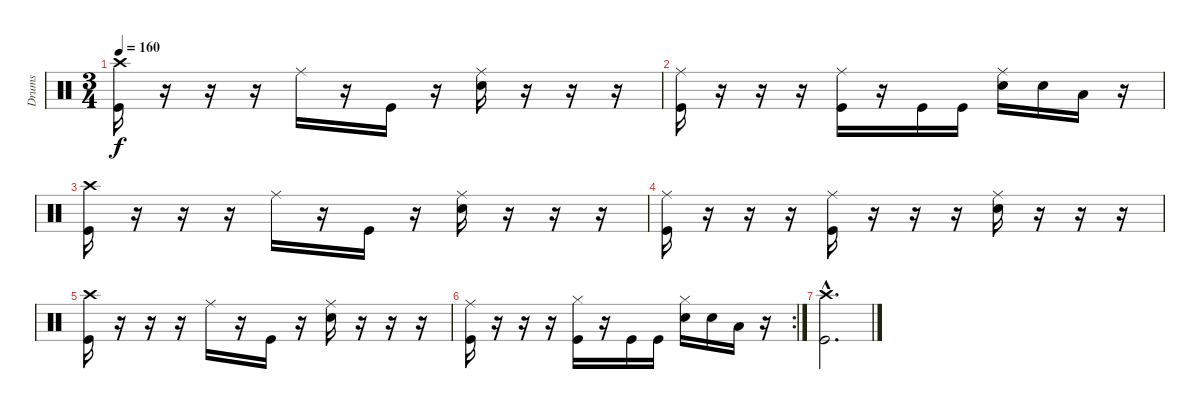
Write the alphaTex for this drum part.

\track ("Drums" "Drums") {instrument percussion}
\staff {score}
\articulation defaults
\ts (3 4)
\tempo 160
\clef neutral
\ks c
("Crash high (hit)" "Kick (hit)").16{dy f} r.16 r.16 r.16 "Ride (middle)".16 r.16 "Kick (hit)".16 r.16 ("Ride (middle)" "Snare (hit) 2").16 r.16 r.16 r.16 |
("Ride (middle)" "Kick (hit)").16 r.16 r.16 r.16 ("Ride (middle)" "Kick (hit)").16 r.16 "Kick (hit)".16 "Kick (hit)".16 ("Ride (middle)" "Snare (hit) 2").16 "Snare (hit) 2".16 "Low Tom (hit)".16 r.16 |
("Crash high (hit)" "Kick (hit)").16 r.16 r.16 r.16 "Ride (middle)".16 r.16 "Kick (hit)".16 r.16 ("Ride (middle)" "Snare (hit) 2").16 r.16 r.16 r.16 |
("Ride (middle)" "Kick (hit)").16 r.16 r.16 r.16 ("Ride (middle)" "Kick (hit)").16 r.16 r.16 r.16 ("Ride (middle)" "Snare (hit) 2").16 r.16 r.16 r.16 |
("Crash high (hit)" "Kick (hit)").16 r.16 r.16 r.16 "Ride (middle)".16 r.16 "Kick (hit)".16 r.16 ("Ride (middle)" "Snare (hit) 2").16 r.16 r.16 r.16 |
\rc 2
("Ride (middle)" "Kick (hit)").16 r.16 r.16 r.16 ("Hi-Hat (closed)" "Kick (hit)").16 r.16 "Kick (hit)".16 "Kick (hit)".16 ("Hi-Hat (closed)" "Snare (hit) 2").16 "Snare (hit) 2".16 "Low Tom (hit)".16 r.16 |
("Crash high (hit)"{hac} "Kick (hit)"{hac}).2{d}
